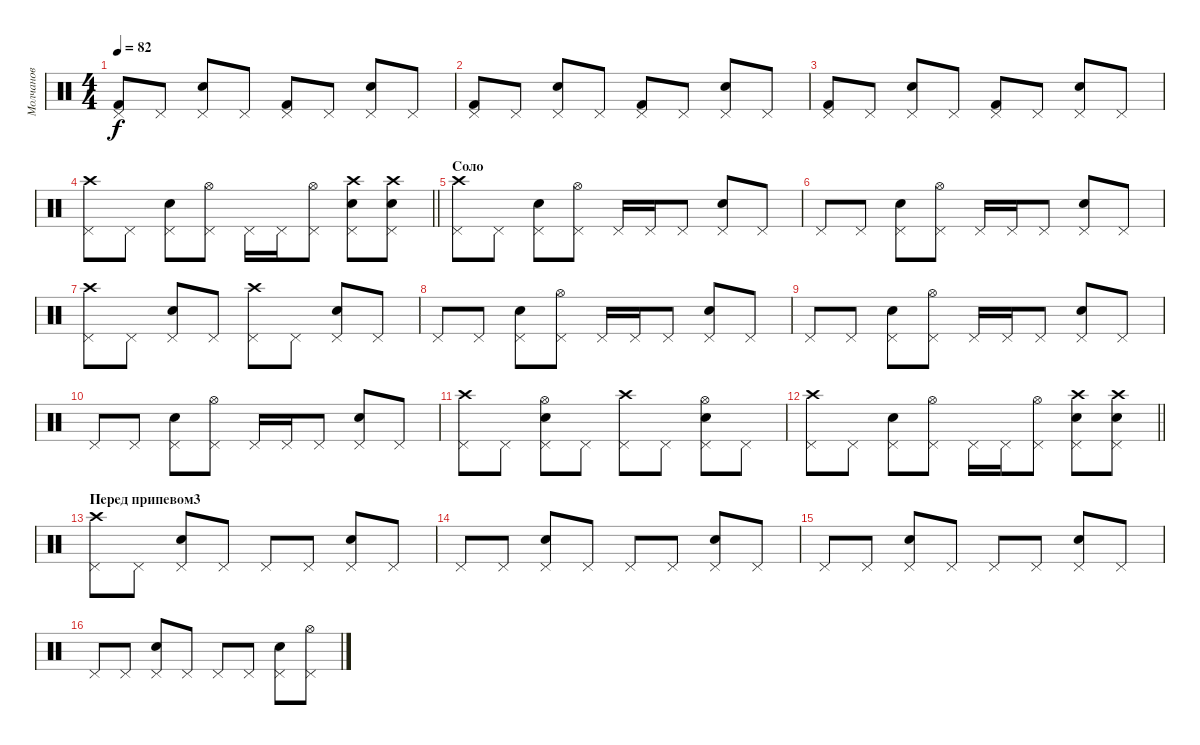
\track ("Молчанов" "Молчанов") {instrument percussion}
\staff {score}
\articulation defaults
\ts (4 4)
\tempo 82
\clef neutral
\ks c
("Pedal Hi-Hat (hit)" "Kick (hit) 2").8{dy f} "Pedal Hi-Hat (hit)".8 ("Pedal Hi-Hat (hit)" "Electric Snare (hit)").8 "Pedal Hi-Hat (hit)".8 ("Pedal Hi-Hat (hit)" "Kick (hit) 2").8 "Pedal Hi-Hat (hit)".8 ("Pedal Hi-Hat (hit)" "Electric Snare (hit)").8 "Pedal Hi-Hat (hit)".8 |
("Pedal Hi-Hat (hit)" "Kick (hit) 2").8 "Pedal Hi-Hat (hit)".8 ("Pedal Hi-Hat (hit)" "Electric Snare (hit)").8 "Pedal Hi-Hat (hit)".8 ("Pedal Hi-Hat (hit)" "Kick (hit) 2").8 "Pedal Hi-Hat (hit)".8 ("Pedal Hi-Hat (hit)" "Electric Snare (hit)").8 "Pedal Hi-Hat (hit)".8 |
("Pedal Hi-Hat (hit)" "Kick (hit) 2").8 "Pedal Hi-Hat (hit)".8 ("Pedal Hi-Hat (hit)" "Electric Snare (hit)").8 "Pedal Hi-Hat (hit)".8 ("Pedal Hi-Hat (hit)" "Kick (hit) 2").8 "Pedal Hi-Hat (hit)".8 ("Pedal Hi-Hat (hit)" "Electric Snare (hit)").8 "Pedal Hi-Hat (hit)".8 |
\barLineRight lightlight
("Pedal Hi-Hat (hit)" "Crash high (hit)").8 "Pedal Hi-Hat (hit)".8 ("Pedal Hi-Hat (hit)" "Electric Snare (hit)").8 ("Pedal Hi-Hat (hit)" "Hi-Hat (open)").8 "Pedal Hi-Hat (hit)".16 "Pedal Hi-Hat (hit)".16 ("Pedal Hi-Hat (hit)" "Hi-Hat (open)").8 ("Pedal Hi-Hat (hit)" "Crash high (hit)" "Electric Snare (hit)").8 ("Pedal Hi-Hat (hit)" "Crash high (hit)" "Electric Snare (hit)").8 |
\section ("" "Соло")
("Pedal Hi-Hat (hit)" "Crash high (hit)").8 "Pedal Hi-Hat (hit)".8 ("Pedal Hi-Hat (hit)" "Electric Snare (hit)").8 ("Pedal Hi-Hat (hit)" "Hi-Hat (open)").8 "Pedal Hi-Hat (hit)".16 "Pedal Hi-Hat (hit)".16 "Pedal Hi-Hat (hit)".8 ("Pedal Hi-Hat (hit)" "Electric Snare (hit)").8 "Pedal Hi-Hat (hit)".8 |
"Pedal Hi-Hat (hit)".8 "Pedal Hi-Hat (hit)".8 ("Pedal Hi-Hat (hit)" "Electric Snare (hit)").8 ("Pedal Hi-Hat (hit)" "Hi-Hat (open)").8 "Pedal Hi-Hat (hit)".16 "Pedal Hi-Hat (hit)".16 "Pedal Hi-Hat (hit)".8 ("Pedal Hi-Hat (hit)" "Electric Snare (hit)").8 "Pedal Hi-Hat (hit)".8 |
("Pedal Hi-Hat (hit)" "Crash high (hit)").8 "Pedal Hi-Hat (hit)".8 ("Pedal Hi-Hat (hit)" "Electric Snare (hit)").8 "Pedal Hi-Hat (hit)".8 ("Pedal Hi-Hat (hit)" "Crash high (hit)").8 "Pedal Hi-Hat (hit)".8 ("Pedal Hi-Hat (hit)" "Electric Snare (hit)").8 "Pedal Hi-Hat (hit)".8 |
"Pedal Hi-Hat (hit)".8 "Pedal Hi-Hat (hit)".8 ("Pedal Hi-Hat (hit)" "Electric Snare (hit)").8 ("Pedal Hi-Hat (hit)" "Hi-Hat (open)").8 "Pedal Hi-Hat (hit)".16 "Pedal Hi-Hat (hit)".16 "Pedal Hi-Hat (hit)".8 ("Pedal Hi-Hat (hit)" "Electric Snare (hit)").8 "Pedal Hi-Hat (hit)".8 |
"Pedal Hi-Hat (hit)".8 "Pedal Hi-Hat (hit)".8 ("Pedal Hi-Hat (hit)" "Electric Snare (hit)").8 ("Pedal Hi-Hat (hit)" "Hi-Hat (open)").8 "Pedal Hi-Hat (hit)".16 "Pedal Hi-Hat (hit)".16 "Pedal Hi-Hat (hit)".8 ("Pedal Hi-Hat (hit)" "Electric Snare (hit)").8 "Pedal Hi-Hat (hit)".8 |
"Pedal Hi-Hat (hit)".8 "Pedal Hi-Hat (hit)".8 ("Pedal Hi-Hat (hit)" "Electric Snare (hit)").8 ("Pedal Hi-Hat (hit)" "Hi-Hat (open)").8 "Pedal Hi-Hat (hit)".16 "Pedal Hi-Hat (hit)".16 "Pedal Hi-Hat (hit)".8 ("Pedal Hi-Hat (hit)" "Electric Snare (hit)").8 "Pedal Hi-Hat (hit)".8 |
("Pedal Hi-Hat (hit)" "Crash high (hit)").8 "Pedal Hi-Hat (hit)".8 ("Pedal Hi-Hat (hit)" "Hi-Hat (open)" "Electric Snare (hit)").8 "Pedal Hi-Hat (hit)".8 ("Pedal Hi-Hat (hit)" "Crash high (hit)").8 "Pedal Hi-Hat (hit)".8 ("Pedal Hi-Hat (hit)" "Hi-Hat (open)" "Electric Snare (hit)").8 "Pedal Hi-Hat (hit)".8 |
\barLineRight lightlight
("Pedal Hi-Hat (hit)" "Crash high (hit)").8 "Pedal Hi-Hat (hit)".8 ("Pedal Hi-Hat (hit)" "Electric Snare (hit)").8 ("Pedal Hi-Hat (hit)" "Hi-Hat (open)").8 "Pedal Hi-Hat (hit)".16 "Pedal Hi-Hat (hit)".16 ("Pedal Hi-Hat (hit)" "Hi-Hat (open)").8 ("Pedal Hi-Hat (hit)" "Crash high (hit)" "Electric Snare (hit)").8 ("Pedal Hi-Hat (hit)" "Crash high (hit)" "Electric Snare (hit)").8 |
\section ("" "Перед припевом3")
("Pedal Hi-Hat (hit)" "Crash high (hit)").8 "Pedal Hi-Hat (hit)".8 ("Pedal Hi-Hat (hit)" "Electric Snare (hit)").8 "Pedal Hi-Hat (hit)".8 "Pedal Hi-Hat (hit)".8 "Pedal Hi-Hat (hit)".8 ("Pedal Hi-Hat (hit)" "Electric Snare (hit)").8 "Pedal Hi-Hat (hit)".8 |
"Pedal Hi-Hat (hit)".8 "Pedal Hi-Hat (hit)".8 ("Pedal Hi-Hat (hit)" "Electric Snare (hit)").8 "Pedal Hi-Hat (hit)".8 "Pedal Hi-Hat (hit)".8 "Pedal Hi-Hat (hit)".8 ("Pedal Hi-Hat (hit)" "Electric Snare (hit)").8 "Pedal Hi-Hat (hit)".8 |
"Pedal Hi-Hat (hit)".8 "Pedal Hi-Hat (hit)".8 ("Pedal Hi-Hat (hit)" "Electric Snare (hit)").8 "Pedal Hi-Hat (hit)".8 "Pedal Hi-Hat (hit)".8 "Pedal Hi-Hat (hit)".8 ("Pedal Hi-Hat (hit)" "Electric Snare (hit)").8 "Pedal Hi-Hat (hit)".8 |
"Pedal Hi-Hat (hit)".8 "Pedal Hi-Hat (hit)".8 ("Pedal Hi-Hat (hit)" "Electric Snare (hit)").8 "Pedal Hi-Hat (hit)".8 "Pedal Hi-Hat (hit)".8 "Pedal Hi-Hat (hit)".8 ("Pedal Hi-Hat (hit)" "Electric Snare (hit)").8 ("Pedal Hi-Hat (hit)" "Hi-Hat (open)").8
